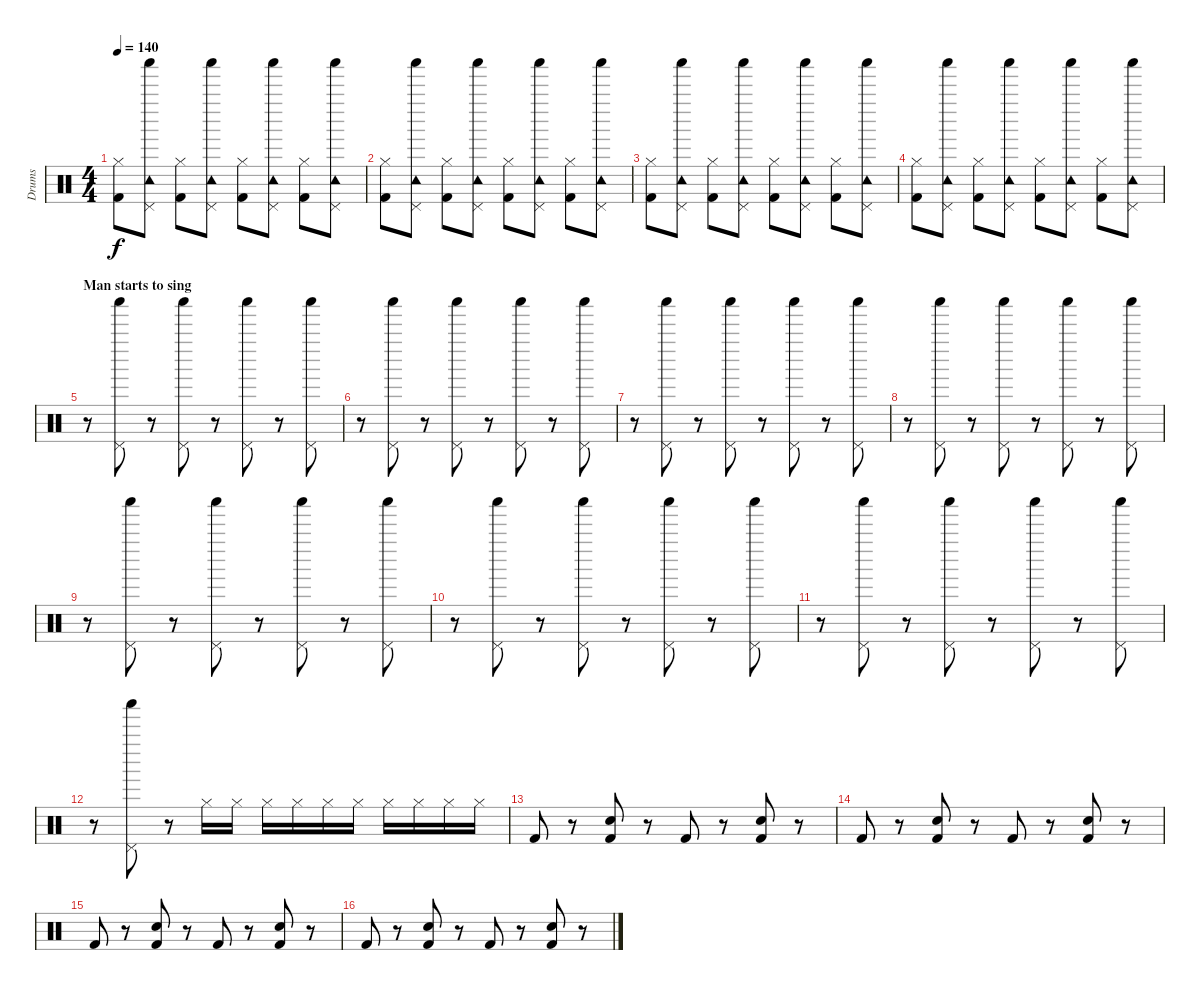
\track ("Drums" "Drums") {instrument percussion}
\staff {score}
\articulation defaults
\ts (4 4)
\tempo 140
\clef neutral
\ks c
("Kick (hit) 2" "Hi-Hat (closed)").8{dy f} ("Pedal Hi-Hat (hit)" "Tambourine (hit)" "Shaker (hit)").8 ("Kick (hit) 2" "Hi-Hat (closed)").8 ("Pedal Hi-Hat (hit)" "Tambourine (hit)" "Shaker (hit)").8 ("Kick (hit) 2" "Hi-Hat (closed)").8 ("Pedal Hi-Hat (hit)" "Tambourine (hit)" "Shaker (hit)").8 ("Kick (hit) 2" "Hi-Hat (closed)").8 ("Pedal Hi-Hat (hit)" "Tambourine (hit)" "Shaker (hit)").8 |
("Kick (hit) 2" "Hi-Hat (closed)").8 ("Pedal Hi-Hat (hit)" "Tambourine (hit)" "Shaker (hit)").8 ("Kick (hit) 2" "Hi-Hat (closed)").8 ("Pedal Hi-Hat (hit)" "Tambourine (hit)" "Shaker (hit)").8 ("Kick (hit) 2" "Hi-Hat (closed)").8 ("Pedal Hi-Hat (hit)" "Tambourine (hit)" "Shaker (hit)").8 ("Kick (hit) 2" "Hi-Hat (closed)").8 ("Pedal Hi-Hat (hit)" "Tambourine (hit)" "Shaker (hit)").8 |
("Kick (hit) 2" "Hi-Hat (closed)").8 ("Pedal Hi-Hat (hit)" "Tambourine (hit)" "Shaker (hit)").8 ("Kick (hit) 2" "Hi-Hat (closed)").8 ("Pedal Hi-Hat (hit)" "Tambourine (hit)" "Shaker (hit)").8 ("Kick (hit) 2" "Hi-Hat (closed)").8 ("Pedal Hi-Hat (hit)" "Tambourine (hit)" "Shaker (hit)").8 ("Kick (hit) 2" "Hi-Hat (closed)").8 ("Pedal Hi-Hat (hit)" "Tambourine (hit)" "Shaker (hit)").8 |
("Kick (hit) 2" "Hi-Hat (closed)").8 ("Pedal Hi-Hat (hit)" "Tambourine (hit)" "Shaker (hit)").8 ("Kick (hit) 2" "Hi-Hat (closed)").8 ("Pedal Hi-Hat (hit)" "Tambourine (hit)" "Shaker (hit)").8 ("Kick (hit) 2" "Hi-Hat (closed)").8 ("Pedal Hi-Hat (hit)" "Tambourine (hit)" "Shaker (hit)").8 ("Kick (hit) 2" "Hi-Hat (closed)").8 ("Pedal Hi-Hat (hit)" "Tambourine (hit)" "Shaker (hit)").8 |
\section ("" "Man starts to sing")
r.8 ("Pedal Hi-Hat (hit)" "Shaker (hit)").8 r.8 ("Pedal Hi-Hat (hit)" "Shaker (hit)").8 r.8 ("Pedal Hi-Hat (hit)" "Shaker (hit)").8 r.8 ("Pedal Hi-Hat (hit)" "Shaker (hit)").8 |
r.8 ("Pedal Hi-Hat (hit)" "Shaker (hit)").8 r.8 ("Pedal Hi-Hat (hit)" "Shaker (hit)").8 r.8 ("Pedal Hi-Hat (hit)" "Shaker (hit)").8 r.8 ("Pedal Hi-Hat (hit)" "Shaker (hit)").8 |
r.8 ("Pedal Hi-Hat (hit)" "Shaker (hit)").8 r.8 ("Pedal Hi-Hat (hit)" "Shaker (hit)").8 r.8 ("Pedal Hi-Hat (hit)" "Shaker (hit)").8 r.8 ("Pedal Hi-Hat (hit)" "Shaker (hit)").8 |
r.8 ("Pedal Hi-Hat (hit)" "Shaker (hit)").8 r.8 ("Pedal Hi-Hat (hit)" "Shaker (hit)").8 r.8 ("Pedal Hi-Hat (hit)" "Shaker (hit)").8 r.8 ("Pedal Hi-Hat (hit)" "Shaker (hit)").8 |
r.8 ("Pedal Hi-Hat (hit)" "Shaker (hit)").8 r.8 ("Pedal Hi-Hat (hit)" "Shaker (hit)").8 r.8 ("Pedal Hi-Hat (hit)" "Shaker (hit)").8 r.8 ("Pedal Hi-Hat (hit)" "Shaker (hit)").8 |
r.8 ("Pedal Hi-Hat (hit)" "Shaker (hit)").8 r.8 ("Pedal Hi-Hat (hit)" "Shaker (hit)").8 r.8 ("Pedal Hi-Hat (hit)" "Shaker (hit)").8 r.8 ("Pedal Hi-Hat (hit)" "Shaker (hit)").8 |
r.8 ("Pedal Hi-Hat (hit)" "Shaker (hit)").8 r.8 ("Pedal Hi-Hat (hit)" "Shaker (hit)").8 r.8 ("Pedal Hi-Hat (hit)" "Shaker (hit)").8 r.8 ("Pedal Hi-Hat (hit)" "Shaker (hit)").8 |
r.8 ("Pedal Hi-Hat (hit)" "Shaker (hit)").8 r.8 "Hi-Hat (closed)".16{volume 6} "Hi-Hat (closed)".16{volume 16} "Hi-Hat (closed)".16 "Hi-Hat (closed)".16 "Hi-Hat (closed)".16 "Hi-Hat (closed)".16 "Hi-Hat (closed)".16 "Hi-Hat (closed)".16 "Hi-Hat (closed)".16 "Hi-Hat (closed)".16 |
\section ("" "")
"Kick (hit) 2".8 r.8 ("Kick (hit) 2" "Hand Clap (hit)").8 r.8 "Kick (hit) 2".8 r.8 ("Kick (hit) 2" "Hand Clap (hit)").8 r.8 |
"Kick (hit) 2".8 r.8 ("Kick (hit) 2" "Hand Clap (hit)").8 r.8 "Kick (hit) 2".8 r.8 ("Kick (hit) 2" "Hand Clap (hit)").8 r.8 |
"Kick (hit) 2".8 r.8 ("Kick (hit) 2" "Hand Clap (hit)").8 r.8 "Kick (hit) 2".8 r.8 ("Kick (hit) 2" "Hand Clap (hit)").8 r.8 |
"Kick (hit) 2".8 r.8 ("Kick (hit) 2" "Hand Clap (hit)").8 r.8 "Kick (hit) 2".8 r.8 ("Kick (hit) 2" "Hand Clap (hit)").8 r.8
